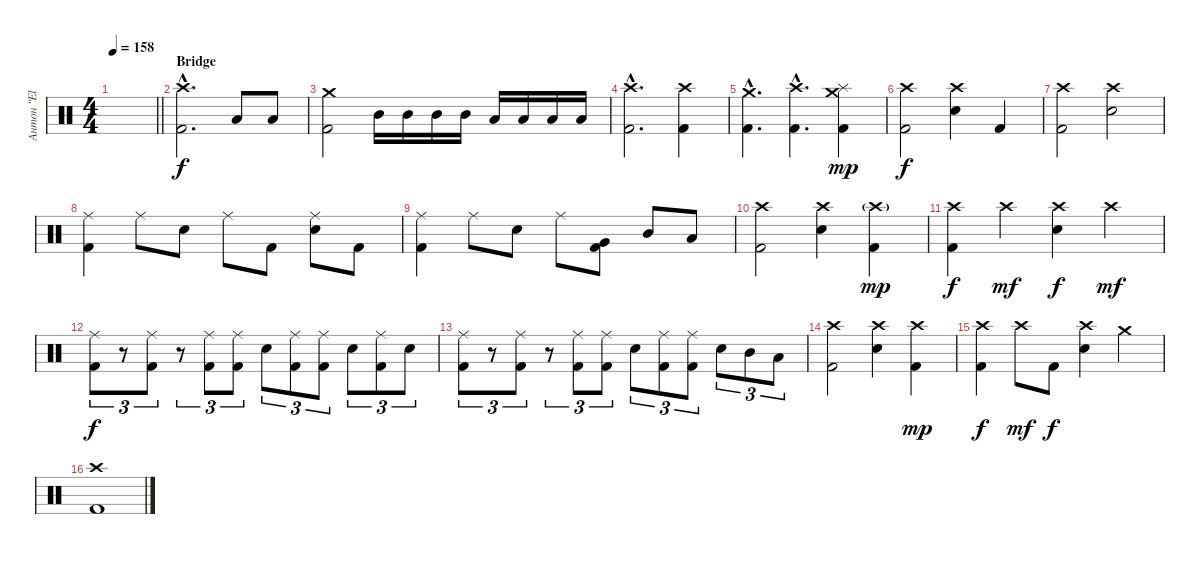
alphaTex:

\track ("Антон \"El Bastardo\" Смольянин" "Антон \"El ") {instrument percussion}
\staff {score}
\articulation defaults
\ts (4 4)
\tempo 158
\clef neutral
\barLineRight lightlight
\ks c
|
\section ("" "Bridge")
("Crash high (hit)"{hac} "Kick (hit) 2"{hac}).2{d} "Low Tom (hit)".8 "Low Tom (hit)".8 |
("Crash medium (hit)" "Kick (hit) 2").2 "Mid Tom (hit)".16 "Mid Tom (hit)".16 "Mid Tom (hit)".16 "Mid Tom (hit)".16 "Low Tom (hit)".16 "Low Tom (hit)".16 "Low Tom (hit)".16 "Low Tom (hit)".16 |
("Crash high (hit)"{hac} "Kick (hit) 2"{hac}).2{d} ("Crash high (hit)" "Kick (hit) 2").4 |
("Crash medium (hit)"{hac} "Kick (hit) 2"{hac}).4{d} ("Crash high (hit)"{hac} "Kick (hit) 2"{hac}).4{d} ("Crash medium (hit)" "Splash (hit)" "Kick (hit) 2").4{dy mp} |
("Crash high (hit)" "Kick (hit) 2").2{dy f} ("Crash high (hit)" "Electric Snare (hit)").4 "Kick (hit) 2".4 |
("Crash high (hit)" "Kick (hit) 2").2 ("Crash high (hit)" "Electric Snare (hit)").2 |
("Ride (middle)" "Kick (hit) 2").4 "Ride (middle)".8 "Electric Snare (hit)".8 "Ride (middle)".8 "Kick (hit) 2".8 ("Ride (middle)" "Electric Snare (hit)").8 "Kick (hit) 2".8 |
("Ride (middle)" "Kick (hit) 2").4 "Ride (middle)".8 "Electric Snare (hit)".8 "Ride (middle)".8 ("Very Low Tom (hit)" "Kick (hit) 2").8 "Mid Tom (hit)".8 "Low Tom (hit)".8 |
("Crash high (hit)" "Kick (hit) 2").2 ("Crash high (hit)" "Electric Snare (hit)").4 ("Crash high (hit)"{g} "Kick (hit) 2").4{dy mp} |
("Crash high (hit)" "Kick (hit) 2").4{dy f} "Crash high (hit)".4{dy mf} ("Crash high (hit)" "Electric Snare (hit)").4{dy f} "Crash high (hit)".4{dy mf} |
("Ride (middle)" "Kick (hit) 2").8{tu (3 2) dy f} r.8{tu (3 2)} ("Ride (middle)" "Kick (hit) 2").8{tu (3 2)} r.8{tu (3 2)} ("Ride (middle)" "Kick (hit) 2").8{tu (3 2)} ("Ride (middle)" "Kick (hit) 2").8{tu (3 2)} "Electric Snare (hit)".8{tu (3 2)} ("Ride (middle)" "Kick (hit) 2").8{tu (3 2)} ("Ride (middle)" "Kick (hit) 2").8{tu (3 2)} "Electric Snare (hit)".8{tu (3 2)} ("Ride (middle)" "Kick (hit) 2").8{tu (3 2)} "Electric Snare (hit)".8{tu (3 2)} |
("Ride (middle)" "Kick (hit) 2").8{tu (3 2)} r.8{tu (3 2)} ("Ride (middle)" "Kick (hit) 2").8{tu (3 2)} r.8{tu (3 2)} ("Ride (middle)" "Kick (hit) 2").8{tu (3 2)} ("Ride (middle)" "Kick (hit) 2").8{tu (3 2)} "Electric Snare (hit)".8{tu (3 2)} ("Ride (middle)" "Kick (hit) 2").8{tu (3 2)} ("Ride (middle)" "Kick (hit) 2").8{tu (3 2)} "Electric Snare (hit)".8{tu (3 2)} "Mid Tom (hit)".8{tu (3 2)} "Low Tom (hit)".8{tu (3 2)} |
("Crash high (hit)" "Kick (hit) 2").2 ("Crash high (hit)" "Electric Snare (hit)").4 ("Crash high (hit)" "Kick (hit) 2").4{dy mp} |
("Crash high (hit)" "Kick (hit) 2").4{dy f} "Crash high (hit)".8{dy mf} "Kick (hit) 2".8{dy f} ("Crash high (hit)" "Electric Snare (hit)").4 "Crash medium (hit)".4 |
("Crash high (hit)" "Kick (hit) 2").1
